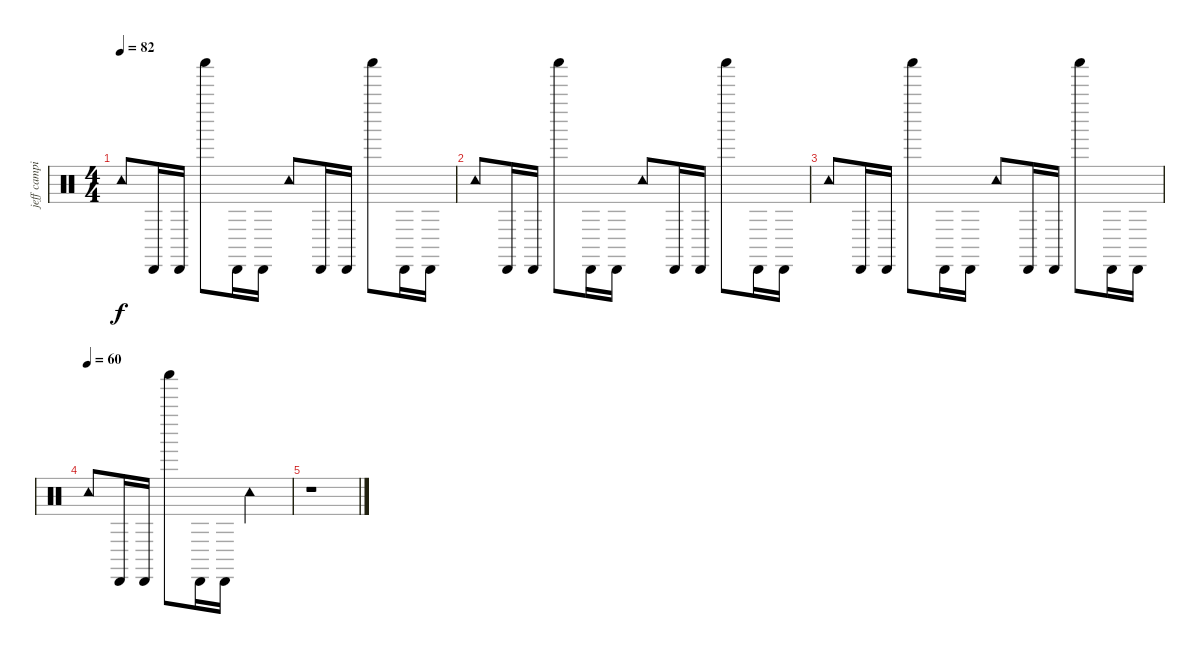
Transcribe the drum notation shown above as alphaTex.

\track ("jeff campitelli" "jeff campi") {instrument percussion}
\staff {score}
\articulation defaults
\ts (4 4)
\tempo 82
\clef neutral
\ks c "Tambourine (hit)".8{dy f} "Cabasa (hit)".16 "Cabasa (hit)".16 "Shaker (hit)".8 "Cabasa (hit)".16 "Cabasa (hit)".16 "Tambourine (hit)".8 "Cabasa (hit)".16 "Cabasa (hit)".16 "Shaker (hit)".8 "Cabasa (hit)".16 "Cabasa (hit)".16
|
"Tambourine (hit)".8 "Cabasa (hit)".16 "Cabasa (hit)".16 "Shaker (hit)".8 "Cabasa (hit)".16 "Cabasa (hit)".16 "Tambourine (hit)".8 "Cabasa (hit)".16 "Cabasa (hit)".16 "Shaker (hit)".8 "Cabasa (hit)".16 "Cabasa (hit)".16 |
"Tambourine (hit)".8 "Cabasa (hit)".16 "Cabasa (hit)".16 "Shaker (hit)".8 "Cabasa (hit)".16 "Cabasa (hit)".16 "Tambourine (hit)".8 "Cabasa (hit)".16 "Cabasa (hit)".16 "Shaker (hit)".8 "Cabasa (hit)".16 "Cabasa (hit)".16 |
\tempo (60)
"Tambourine (hit)".8 "Cabasa (hit)".16 "Cabasa (hit)".16 "Shaker (hit)".8 "Cabasa (hit)".16 "Cabasa (hit)".16 "Tambourine (hit)".2 |
r.1
